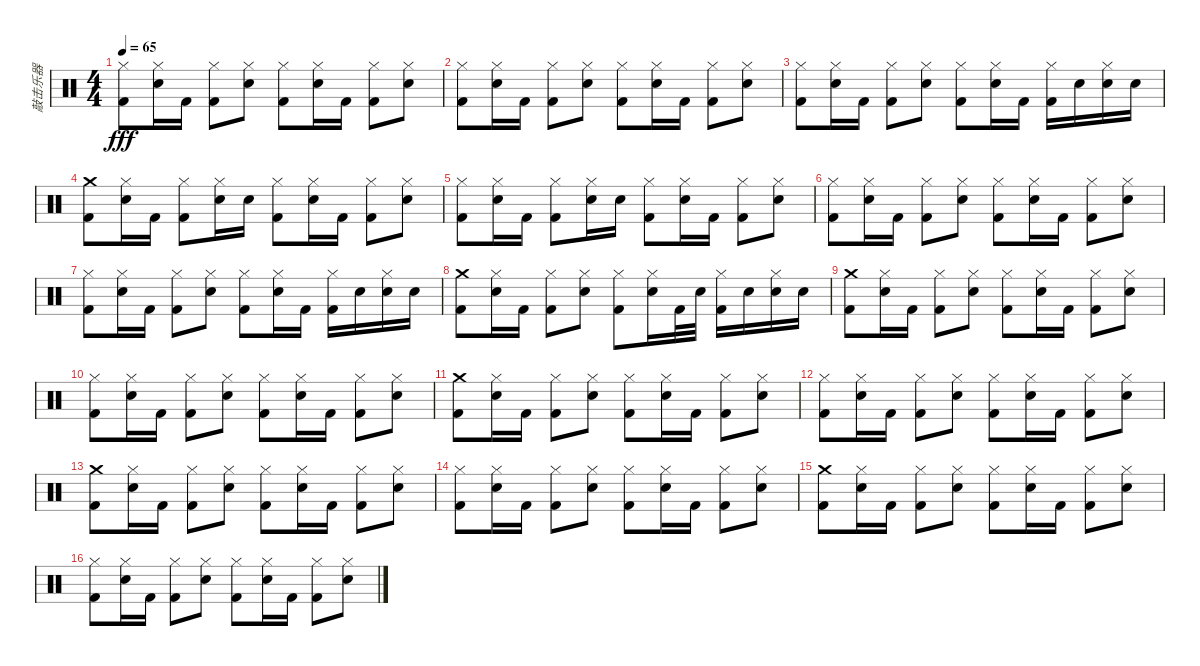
\track ("敲击乐器" "敲击乐器") {instrument percussion}
\staff {score}
\articulation defaults
\ts (4 4)
\tempo 65
\clef neutral
\ks c
("Hi-Hat (closed)" "Kick (hit) 2").8{dy fff} ("Hi-Hat (closed)" "Electric Snare (hit)").16 "Kick (hit) 2".16 ("Hi-Hat (closed)" "Kick (hit) 2").8 ("Hi-Hat (closed)" "Electric Snare (hit)").8 ("Hi-Hat (closed)" "Kick (hit) 2").8 ("Hi-Hat (closed)" "Electric Snare (hit)").16 "Kick (hit) 2".16 ("Hi-Hat (closed)" "Kick (hit) 2").8 ("Hi-Hat (closed)" "Electric Snare (hit)").8 |
("Hi-Hat (closed)" "Kick (hit) 2").8 ("Hi-Hat (closed)" "Electric Snare (hit)").16 "Kick (hit) 2".16 ("Hi-Hat (closed)" "Kick (hit) 2").8 ("Hi-Hat (closed)" "Electric Snare (hit)").8 ("Hi-Hat (closed)" "Kick (hit) 2").8 ("Hi-Hat (closed)" "Electric Snare (hit)").16 "Kick (hit) 2".16 ("Hi-Hat (closed)" "Kick (hit) 2").8 ("Hi-Hat (closed)" "Electric Snare (hit)").8 |
("Hi-Hat (closed)" "Kick (hit) 2").8 ("Hi-Hat (closed)" "Electric Snare (hit)").16 "Kick (hit) 2".16 ("Hi-Hat (closed)" "Kick (hit) 2").8 ("Hi-Hat (closed)" "Electric Snare (hit)").8 ("Hi-Hat (closed)" "Kick (hit) 2").8 ("Hi-Hat (closed)" "Electric Snare (hit)").16 "Kick (hit) 2".16 ("Hi-Hat (closed)" "Kick (hit) 2").16 "Electric Snare (hit)".16 ("Hi-Hat (closed)" "Electric Snare (hit)").16 "Electric Snare (hit)".16 |
("Crash medium (hit)" "Kick (hit) 2").8 ("Hi-Hat (closed)" "Electric Snare (hit)").16 "Kick (hit) 2".16 ("Hi-Hat (closed)" "Kick (hit) 2").8 ("Hi-Hat (closed)" "Electric Snare (hit)").16 "Electric Snare (hit)".16 ("Hi-Hat (closed)" "Kick (hit) 2").8 ("Hi-Hat (closed)" "Electric Snare (hit)").16 "Kick (hit) 2".16 ("Hi-Hat (closed)" "Kick (hit) 2").8 ("Hi-Hat (closed)" "Electric Snare (hit)").8 |
("Hi-Hat (closed)" "Kick (hit) 2").8 ("Hi-Hat (closed)" "Electric Snare (hit)").16 "Kick (hit) 2".16 ("Hi-Hat (closed)" "Kick (hit) 2").8 ("Hi-Hat (closed)" "Electric Snare (hit)").16 "Electric Snare (hit)".16 ("Hi-Hat (closed)" "Kick (hit) 2").8 ("Hi-Hat (closed)" "Electric Snare (hit)").16 "Kick (hit) 2".16 ("Hi-Hat (closed)" "Kick (hit) 2").8 ("Hi-Hat (closed)" "Electric Snare (hit)").8 |
("Hi-Hat (closed)" "Kick (hit) 2").8 ("Hi-Hat (closed)" "Electric Snare (hit)").16 "Kick (hit) 2".16 ("Hi-Hat (closed)" "Kick (hit) 2").8 ("Hi-Hat (closed)" "Electric Snare (hit)").8 ("Hi-Hat (closed)" "Kick (hit) 2").8 ("Hi-Hat (closed)" "Electric Snare (hit)").16 "Kick (hit) 2".16 ("Hi-Hat (closed)" "Kick (hit) 2").8 ("Hi-Hat (closed)" "Electric Snare (hit)").8 |
("Hi-Hat (closed)" "Kick (hit) 2").8 ("Hi-Hat (closed)" "Electric Snare (hit)").16 "Kick (hit) 2".16 ("Hi-Hat (closed)" "Kick (hit) 2").8 ("Hi-Hat (closed)" "Electric Snare (hit)").8 ("Hi-Hat (closed)" "Kick (hit) 2").8 ("Hi-Hat (closed)" "Electric Snare (hit)").16 "Kick (hit) 2".16 ("Hi-Hat (closed)" "Kick (hit) 2").16 "Electric Snare (hit)".16 ("Hi-Hat (closed)" "Electric Snare (hit)").16 "Electric Snare (hit)".16 |
("Crash medium (hit)" "Kick (hit) 2").8 ("Hi-Hat (closed)" "Electric Snare (hit)").16 "Kick (hit) 2".16 ("Hi-Hat (closed)" "Kick (hit) 2").8 ("Hi-Hat (closed)" "Electric Snare (hit)").8 ("Hi-Hat (closed)" "Kick (hit) 2").8 ("Hi-Hat (closed)" "Electric Snare (hit)").16 "Kick (hit) 2".32 "Electric Snare (hit)".32 ("Hi-Hat (closed)" "Kick (hit) 2").16 "Electric Snare (hit)".16 ("Hi-Hat (closed)" "Electric Snare (hit)").16 "Electric Snare (hit)".16 |
("Crash medium (hit)" "Kick (hit) 2").8 ("Hi-Hat (closed)" "Electric Snare (hit)").16 "Kick (hit) 2".16 ("Hi-Hat (closed)" "Kick (hit) 2").8 ("Hi-Hat (closed)" "Electric Snare (hit)").8 ("Hi-Hat (closed)" "Kick (hit) 2").8 ("Hi-Hat (closed)" "Electric Snare (hit)").16 "Kick (hit) 2".16 ("Hi-Hat (closed)" "Kick (hit) 2").8 ("Hi-Hat (closed)" "Electric Snare (hit)").8 |
("Hi-Hat (closed)" "Kick (hit) 2").8 ("Hi-Hat (closed)" "Electric Snare (hit)").16 "Kick (hit) 2".16 ("Hi-Hat (closed)" "Kick (hit) 2").8 ("Hi-Hat (closed)" "Electric Snare (hit)").8 ("Hi-Hat (closed)" "Kick (hit) 2").8 ("Hi-Hat (closed)" "Electric Snare (hit)").16 "Kick (hit) 2".16 ("Hi-Hat (closed)" "Kick (hit) 2").8 ("Hi-Hat (closed)" "Electric Snare (hit)").8 |
("Crash medium (hit)" "Kick (hit) 2").8 ("Hi-Hat (closed)" "Electric Snare (hit)").16 "Kick (hit) 2".16 ("Hi-Hat (closed)" "Kick (hit) 2").8 ("Hi-Hat (closed)" "Electric Snare (hit)").8 ("Hi-Hat (closed)" "Kick (hit) 2").8 ("Hi-Hat (closed)" "Electric Snare (hit)").16 "Kick (hit) 2".16 ("Hi-Hat (closed)" "Kick (hit) 2").8 ("Hi-Hat (closed)" "Electric Snare (hit)").8 |
("Hi-Hat (closed)" "Kick (hit) 2").8 ("Hi-Hat (closed)" "Electric Snare (hit)").16 "Kick (hit) 2".16 ("Hi-Hat (closed)" "Kick (hit) 2").8 ("Hi-Hat (closed)" "Electric Snare (hit)").8 ("Hi-Hat (closed)" "Kick (hit) 2").8 ("Hi-Hat (closed)" "Electric Snare (hit)").16 "Kick (hit) 2".16 ("Hi-Hat (closed)" "Kick (hit) 2").8 ("Hi-Hat (closed)" "Electric Snare (hit)").8 |
("Crash medium (hit)" "Kick (hit) 2").8 ("Hi-Hat (closed)" "Electric Snare (hit)").16 "Kick (hit) 2".16 ("Hi-Hat (closed)" "Kick (hit) 2").8 ("Hi-Hat (closed)" "Electric Snare (hit)").8 ("Hi-Hat (closed)" "Kick (hit) 2").8 ("Hi-Hat (closed)" "Electric Snare (hit)").16 "Kick (hit) 2".16 ("Hi-Hat (closed)" "Kick (hit) 2").8 ("Hi-Hat (closed)" "Electric Snare (hit)").8 |
("Hi-Hat (closed)" "Kick (hit) 2").8 ("Hi-Hat (closed)" "Electric Snare (hit)").16 "Kick (hit) 2".16 ("Hi-Hat (closed)" "Kick (hit) 2").8 ("Hi-Hat (closed)" "Electric Snare (hit)").8 ("Hi-Hat (closed)" "Kick (hit) 2").8 ("Hi-Hat (closed)" "Electric Snare (hit)").16 "Kick (hit) 2".16 ("Hi-Hat (closed)" "Kick (hit) 2").8 ("Hi-Hat (closed)" "Electric Snare (hit)").8 |
("Crash medium (hit)" "Kick (hit) 2").8 ("Hi-Hat (closed)" "Electric Snare (hit)").16 "Kick (hit) 2".16 ("Hi-Hat (closed)" "Kick (hit) 2").8 ("Hi-Hat (closed)" "Electric Snare (hit)").8 ("Hi-Hat (closed)" "Kick (hit) 2").8 ("Hi-Hat (closed)" "Electric Snare (hit)").16 "Kick (hit) 2".16 ("Hi-Hat (closed)" "Kick (hit) 2").8 ("Hi-Hat (closed)" "Electric Snare (hit)").8 |
("Hi-Hat (closed)" "Kick (hit) 2").8 ("Hi-Hat (closed)" "Electric Snare (hit)").16 "Kick (hit) 2".16 ("Hi-Hat (closed)" "Kick (hit) 2").8 ("Hi-Hat (closed)" "Electric Snare (hit)").8 ("Hi-Hat (closed)" "Kick (hit) 2").8 ("Hi-Hat (closed)" "Electric Snare (hit)").16 "Kick (hit) 2".16 ("Hi-Hat (closed)" "Kick (hit) 2").8 ("Hi-Hat (closed)" "Electric Snare (hit)").8
